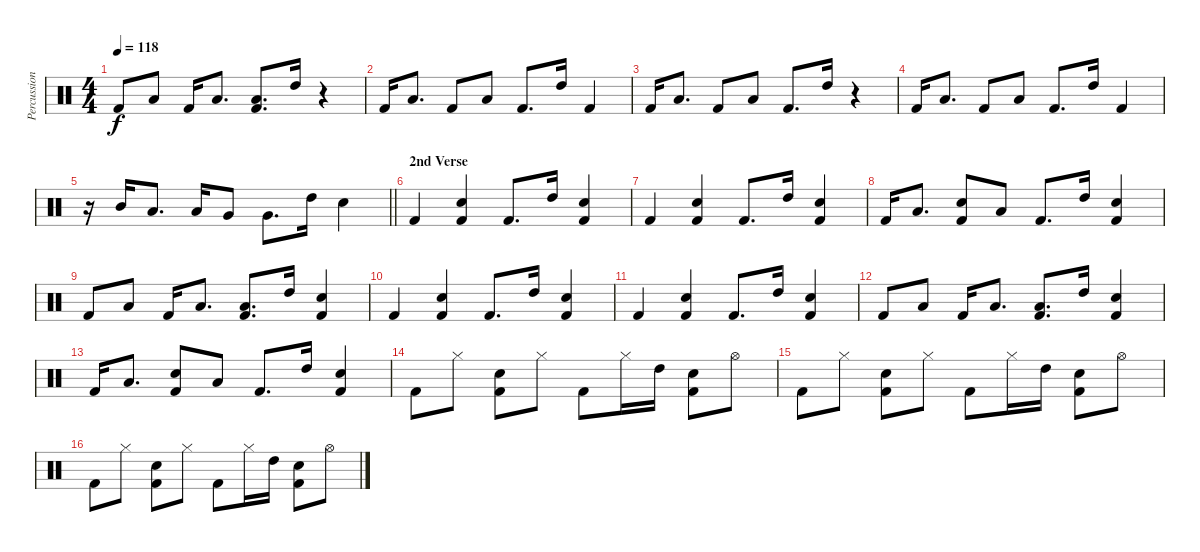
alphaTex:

\track ("Percussion" "Percussion") {instrument percussion}
\staff {score}
\articulation defaults
\ts (4 4)
\tempo 118
\clef neutral
\ks c "Kick (hit) 2".8{dy f} "Low Tom (hit)".8 "Kick (hit) 2".16 "Low Tom (hit)".8{d}
("Low Tom (hit)" "Kick (hit) 2").8{d} "High Tom (hit)".16 r.4 |
"Kick (hit) 2".16 "Low Tom (hit)".8{d} "Kick (hit) 2".8 "Low Tom (hit)".8 "Kick (hit) 2".8{d} "High Tom (hit)".16 "Kick (hit) 2".4 |
"Kick (hit) 2".16 "Low Tom (hit)".8{d} "Kick (hit) 2".8 "Low Tom (hit)".8 "Kick (hit) 2".8{d} "High Tom (hit)".16 r.4 |
"Kick (hit) 2".16 "Low Tom (hit)".8{d} "Kick (hit) 2".8 "Low Tom (hit)".8 "Kick (hit) 2".8{d} "High Tom (hit)".16 "Kick (hit) 2".4 |
\barLineRight lightlight
r.16 "Mid Tom (hit)".16 "Low Tom (hit)".8{d} "Low Tom (hit)".16 "Very Low Tom (hit)".8 "Very Low Tom (hit)".8{d} "High Tom (hit)".16 "Hand Clap (hit)".4 |
\section ("" "2nd Verse")
"Kick (hit) 2".4 ("Hand Clap (hit)" "Kick (hit) 2").4 "Kick (hit) 2".8{d} "High Tom (hit)".16 ("Hand Clap (hit)" "Kick (hit) 2").4 |
"Kick (hit) 2".4 ("Hand Clap (hit)" "Kick (hit) 2").4 "Kick (hit) 2".8{d} "High Tom (hit)".16 ("Hand Clap (hit)" "Kick (hit) 2").4 |
"Kick (hit) 2".16 "Low Tom (hit)".8{d} ("Hand Clap (hit)" "Kick (hit) 2").8 "Low Tom (hit)".8 "Kick (hit) 2".8{d} "High Tom (hit)".16 ("Hand Clap (hit)" "Kick (hit) 2").4 |
"Kick (hit) 2".8 "Low Tom (hit)".8 "Kick (hit) 2".16 "Low Tom (hit)".8{d} ("Low Tom (hit)" "Kick (hit) 2").8{d} "High Tom (hit)".16 ("Hand Clap (hit)" "Kick (hit) 2").4 |
"Kick (hit) 2".4 ("Hand Clap (hit)" "Kick (hit) 2").4 "Kick (hit) 2".8{d} "High Tom (hit)".16 ("Hand Clap (hit)" "Kick (hit) 2").4 |
"Kick (hit) 2".4 ("Hand Clap (hit)" "Kick (hit) 2").4 "Kick (hit) 2".8{d} "High Tom (hit)".16 ("Hand Clap (hit)" "Kick (hit) 2").4 |
"Kick (hit) 2".8 "Low Tom (hit)".8 "Kick (hit) 2".16 "Low Tom (hit)".8{d} ("Low Tom (hit)" "Kick (hit) 2").8{d} "High Tom (hit)".16 ("Hand Clap (hit)" "Kick (hit) 2").4 |
"Kick (hit) 2".16 "Low Tom (hit)".8{d} ("Hand Clap (hit)" "Kick (hit) 2").8 "Low Tom (hit)".8 "Kick (hit) 2".8{d} "High Tom (hit)".16 ("Hand Clap (hit)" "Kick (hit) 2").4 |
"Kick (hit) 2".8 "Hi-Hat (closed)".8 ("Hand Clap (hit)" "Kick (hit) 2").8 "Hi-Hat (closed)".8 "Kick (hit) 2".8 "Hi-Hat (closed)".16 "High Tom (hit)".16 ("Hand Clap (hit)" "Kick (hit) 2").8 "Hi-Hat (open)".8 |
"Kick (hit) 2".8 "Hi-Hat (closed)".8 ("Hand Clap (hit)" "Kick (hit) 2").8 "Hi-Hat (closed)".8 "Kick (hit) 2".8 "Hi-Hat (closed)".16 "High Tom (hit)".16 ("Hand Clap (hit)" "Kick (hit) 2").8 "Hi-Hat (open)".8 |
"Kick (hit) 2".8 "Hi-Hat (closed)".8 ("Hand Clap (hit)" "Kick (hit) 2").8 "Hi-Hat (closed)".8 "Kick (hit) 2".8 "Hi-Hat (closed)".16 "High Tom (hit)".16 ("Hand Clap (hit)" "Kick (hit) 2").8 "Hi-Hat (open)".8
